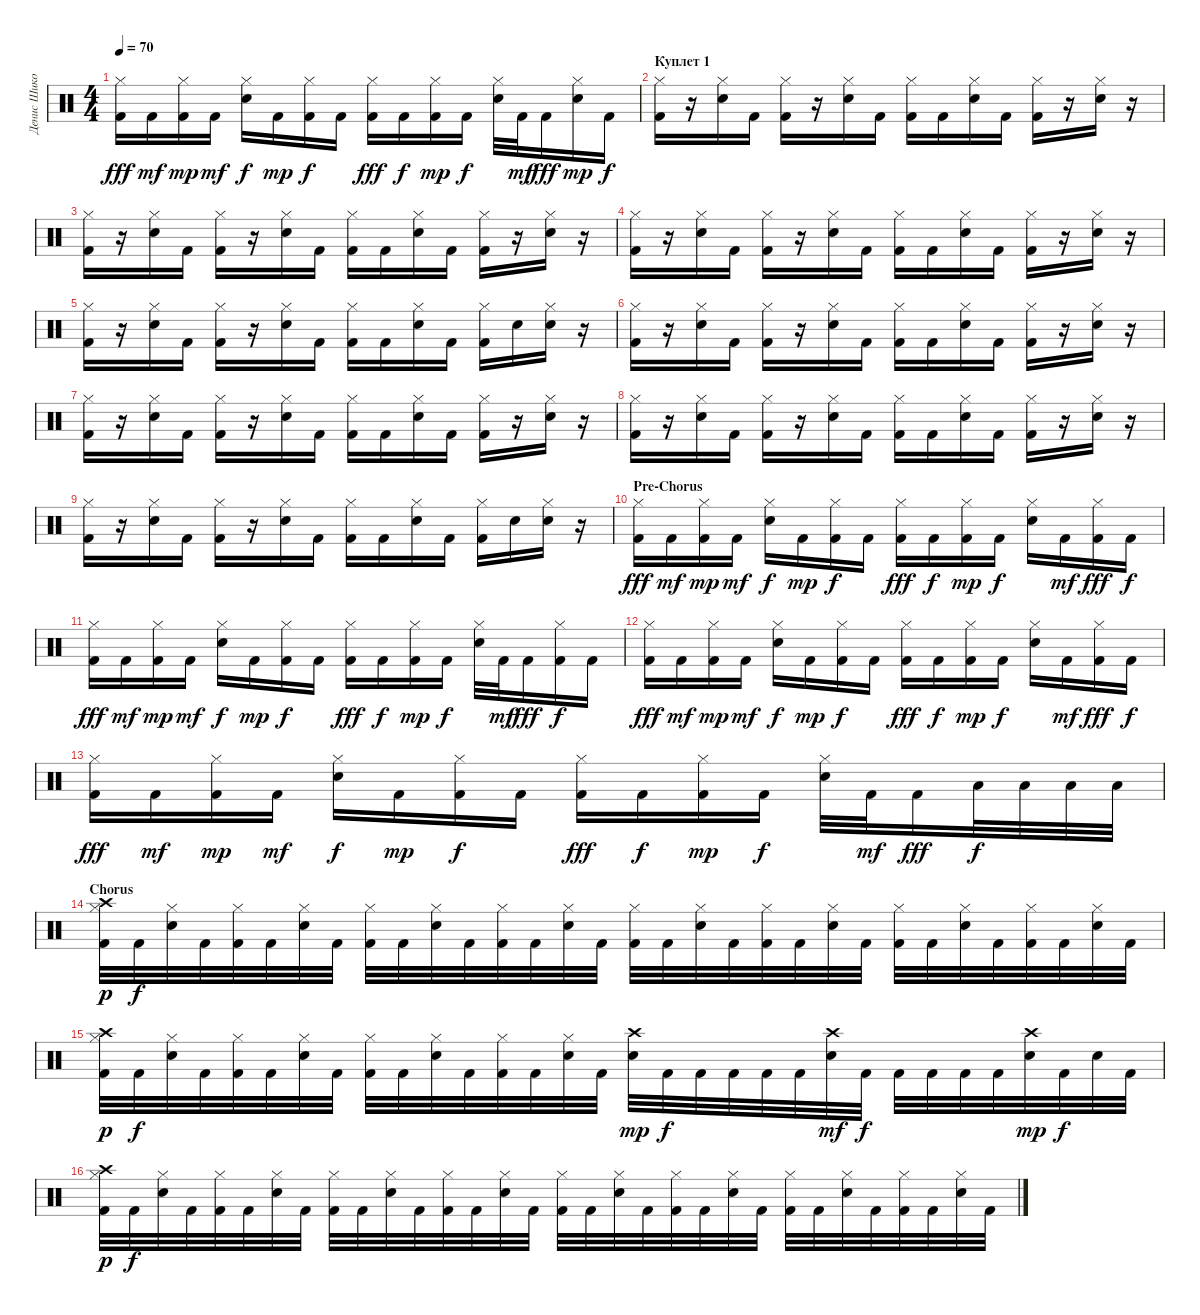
\track ("Денис Шиков" "Денис Шико") {instrument percussion}
\staff {score}
\articulation defaults
\ts (4 4)
\tempo 70
\clef neutral
\ks c
("Hi-Hat (closed)" "Kick (hit) 2").16{dy fff} "Kick (hit) 2".16{dy mf} ("Hi-Hat (closed)" "Kick (hit) 2").16{dy mp} "Kick (hit) 2".16{dy mf} ("Hi-Hat (closed)" "Electric Snare (hit)").16{dy f} "Kick (hit) 2".16{dy mp} ("Hi-Hat (closed)" "Kick (hit) 2").16{dy f} "Kick (hit) 2".16 ("Hi-Hat (closed)" "Kick (hit) 2").16{dy fff} "Kick (hit) 2".16{dy f} ("Hi-Hat (closed)" "Kick (hit) 2").16{dy mp} "Kick (hit) 2".16{dy f} ("Hi-Hat (closed)" "Electric Snare (hit)").32 "Kick (hit) 2".32{dy mf} "Kick (hit) 2".16{dy fff} ("Hi-Hat (closed)" "Electric Snare (hit)").16{dy mp} "Kick (hit) 2".16{dy f} |
\section ("" "Куплет 1")
("Hi-Hat (closed)" "Kick (hit) 2").16 r.16 ("Hi-Hat (closed)" "Electric Snare (hit)").16 "Kick (hit) 2".16 ("Hi-Hat (closed)" "Kick (hit) 2").16 r.16 ("Hi-Hat (closed)" "Electric Snare (hit)").16 "Kick (hit) 2".16 ("Hi-Hat (closed)" "Kick (hit) 2").16 "Kick (hit) 2".16 ("Hi-Hat (closed)" "Electric Snare (hit)").16 "Kick (hit) 2".16 ("Hi-Hat (closed)" "Kick (hit) 2").16 r.16 ("Hi-Hat (closed)" "Electric Snare (hit)").16 r.16 |
("Hi-Hat (closed)" "Kick (hit) 2").16 r.16 ("Hi-Hat (closed)" "Electric Snare (hit)").16 "Kick (hit) 2".16 ("Hi-Hat (closed)" "Kick (hit) 2").16 r.16 ("Hi-Hat (closed)" "Electric Snare (hit)").16 "Kick (hit) 2".16 ("Hi-Hat (closed)" "Kick (hit) 2").16 "Kick (hit) 2".16 ("Hi-Hat (closed)" "Electric Snare (hit)").16 "Kick (hit) 2".16 ("Hi-Hat (closed)" "Kick (hit) 2").16 r.16 ("Hi-Hat (closed)" "Electric Snare (hit)").16 r.16 |
("Hi-Hat (closed)" "Kick (hit) 2").16 r.16 ("Hi-Hat (closed)" "Electric Snare (hit)").16 "Kick (hit) 2".16 ("Hi-Hat (closed)" "Kick (hit) 2").16 r.16 ("Hi-Hat (closed)" "Electric Snare (hit)").16 "Kick (hit) 2".16 ("Hi-Hat (closed)" "Kick (hit) 2").16 "Kick (hit) 2".16 ("Hi-Hat (closed)" "Electric Snare (hit)").16 "Kick (hit) 2".16 ("Hi-Hat (closed)" "Kick (hit) 2").16 r.16 ("Hi-Hat (closed)" "Electric Snare (hit)").16 r.16 |
("Hi-Hat (closed)" "Kick (hit) 2").16 r.16 ("Hi-Hat (closed)" "Electric Snare (hit)").16 "Kick (hit) 2".16 ("Hi-Hat (closed)" "Kick (hit) 2").16 r.16 ("Hi-Hat (closed)" "Electric Snare (hit)").16 "Kick (hit) 2".16 ("Hi-Hat (closed)" "Kick (hit) 2").16 "Kick (hit) 2".16 ("Hi-Hat (closed)" "Electric Snare (hit)").16 "Kick (hit) 2".16 ("Hi-Hat (closed)" "Kick (hit) 2").16 "Electric Snare (hit)".16 ("Hi-Hat (closed)" "Electric Snare (hit)").16 r.16 |
("Hi-Hat (closed)" "Kick (hit) 2").16 r.16 ("Hi-Hat (closed)" "Electric Snare (hit)").16 "Kick (hit) 2".16 ("Hi-Hat (closed)" "Kick (hit) 2").16 r.16 ("Hi-Hat (closed)" "Electric Snare (hit)").16 "Kick (hit) 2".16 ("Hi-Hat (closed)" "Kick (hit) 2").16 "Kick (hit) 2".16 ("Hi-Hat (closed)" "Electric Snare (hit)").16 "Kick (hit) 2".16 ("Hi-Hat (closed)" "Kick (hit) 2").16 r.16 ("Hi-Hat (closed)" "Electric Snare (hit)").16 r.16 |
("Hi-Hat (closed)" "Kick (hit) 2").16 r.16 ("Hi-Hat (closed)" "Electric Snare (hit)").16 "Kick (hit) 2".16 ("Hi-Hat (closed)" "Kick (hit) 2").16 r.16 ("Hi-Hat (closed)" "Electric Snare (hit)").16 "Kick (hit) 2".16 ("Hi-Hat (closed)" "Kick (hit) 2").16 "Kick (hit) 2".16 ("Hi-Hat (closed)" "Electric Snare (hit)").16 "Kick (hit) 2".16 ("Hi-Hat (closed)" "Kick (hit) 2").16 r.16 ("Hi-Hat (closed)" "Electric Snare (hit)").16 r.16 |
("Hi-Hat (closed)" "Kick (hit) 2").16 r.16 ("Hi-Hat (closed)" "Electric Snare (hit)").16 "Kick (hit) 2".16 ("Hi-Hat (closed)" "Kick (hit) 2").16 r.16 ("Hi-Hat (closed)" "Electric Snare (hit)").16 "Kick (hit) 2".16 ("Hi-Hat (closed)" "Kick (hit) 2").16 "Kick (hit) 2".16 ("Hi-Hat (closed)" "Electric Snare (hit)").16 "Kick (hit) 2".16 ("Hi-Hat (closed)" "Kick (hit) 2").16 r.16 ("Hi-Hat (closed)" "Electric Snare (hit)").16 r.16 |
("Hi-Hat (closed)" "Kick (hit) 2").16 r.16 ("Hi-Hat (closed)" "Electric Snare (hit)").16 "Kick (hit) 2".16 ("Hi-Hat (closed)" "Kick (hit) 2").16 r.16 ("Hi-Hat (closed)" "Electric Snare (hit)").16 "Kick (hit) 2".16 ("Hi-Hat (closed)" "Kick (hit) 2").16 "Kick (hit) 2".16 ("Hi-Hat (closed)" "Electric Snare (hit)").16 "Kick (hit) 2".16 ("Hi-Hat (closed)" "Kick (hit) 2").16 "Electric Snare (hit)".16 ("Hi-Hat (closed)" "Electric Snare (hit)").16 r.16 |
\section ("" "Pre-Chorus")
("Hi-Hat (closed)" "Kick (hit) 2").16{dy fff} "Kick (hit) 2".16{dy mf} ("Hi-Hat (closed)" "Kick (hit) 2").16{dy mp} "Kick (hit) 2".16{dy mf} ("Hi-Hat (closed)" "Electric Snare (hit)").16{dy f} "Kick (hit) 2".16{dy mp} ("Hi-Hat (closed)" "Kick (hit) 2").16{dy f} "Kick (hit) 2".16 ("Hi-Hat (closed)" "Kick (hit) 2").16{dy fff} "Kick (hit) 2".16{dy f} ("Hi-Hat (closed)" "Kick (hit) 2").16{dy mp} "Kick (hit) 2".16{dy f} ("Hi-Hat (closed)" "Electric Snare (hit)").16 "Kick (hit) 2".16{dy mf} ("Hi-Hat (closed)" "Kick (hit) 2").16{dy fff} "Kick (hit) 2".16{dy f} |
("Hi-Hat (closed)" "Kick (hit) 2").16{dy fff} "Kick (hit) 2".16{dy mf} ("Hi-Hat (closed)" "Kick (hit) 2").16{dy mp} "Kick (hit) 2".16{dy mf} ("Hi-Hat (closed)" "Electric Snare (hit)").16{dy f} "Kick (hit) 2".16{dy mp} ("Hi-Hat (closed)" "Kick (hit) 2").16{dy f} "Kick (hit) 2".16 ("Hi-Hat (closed)" "Kick (hit) 2").16{dy fff} "Kick (hit) 2".16{dy f} ("Hi-Hat (closed)" "Kick (hit) 2").16{dy mp} "Kick (hit) 2".16{dy f} ("Hi-Hat (closed)" "Electric Snare (hit)").32 "Kick (hit) 2".32{dy mf} "Kick (hit) 2".16{dy fff} ("Hi-Hat (closed)" "Kick (hit) 2").16{dy f} "Kick (hit) 2".16 |
("Hi-Hat (closed)" "Kick (hit) 2").16{dy fff} "Kick (hit) 2".16{dy mf} ("Hi-Hat (closed)" "Kick (hit) 2").16{dy mp} "Kick (hit) 2".16{dy mf} ("Hi-Hat (closed)" "Electric Snare (hit)").16{dy f} "Kick (hit) 2".16{dy mp} ("Hi-Hat (closed)" "Kick (hit) 2").16{dy f} "Kick (hit) 2".16 ("Hi-Hat (closed)" "Kick (hit) 2").16{dy fff} "Kick (hit) 2".16{dy f} ("Hi-Hat (closed)" "Kick (hit) 2").16{dy mp} "Kick (hit) 2".16{dy f} ("Hi-Hat (closed)" "Electric Snare (hit)").16 "Kick (hit) 2".16{dy mf} ("Hi-Hat (closed)" "Kick (hit) 2").16{dy fff} "Kick (hit) 2".16{dy f} |
("Hi-Hat (closed)" "Kick (hit) 2").16{dy fff} "Kick (hit) 2".16{dy mf} ("Hi-Hat (closed)" "Kick (hit) 2").16{dy mp} "Kick (hit) 2".16{dy mf} ("Hi-Hat (closed)" "Electric Snare (hit)").16{dy f} "Kick (hit) 2".16{dy mp} ("Hi-Hat (closed)" "Kick (hit) 2").16{dy f} "Kick (hit) 2".16 ("Hi-Hat (closed)" "Kick (hit) 2").16{dy fff} "Kick (hit) 2".16{dy f} ("Hi-Hat (closed)" "Kick (hit) 2").16{dy mp} "Kick (hit) 2".16{dy f} ("Hi-Hat (closed)" "Electric Snare (hit)").32 "Kick (hit) 2".32{dy mf} "Kick (hit) 2".16{dy fff} "Low Floor Tom (hit)".32{dy f} "Low Floor Tom (hit)".32 "Low Tom (hit)".32 "Low Floor Tom (hit)".32 |
\section ("" "Chorus")
("Crash high (hit)" "Hi-Hat (closed)" "Kick (hit) 2").32{dy p} "Kick (hit) 2".32{dy f} ("Hi-Hat (closed)" "Electric Snare (hit)").32 "Kick (hit) 2".32 ("Hi-Hat (closed)" "Kick (hit) 2").32 "Kick (hit) 2".32 ("Hi-Hat (closed)" "Electric Snare (hit)").32 "Kick (hit) 2".32 ("Hi-Hat (closed)" "Kick (hit) 2").32 "Kick (hit) 2".32 ("Hi-Hat (closed)" "Electric Snare (hit)").32 "Kick (hit) 2".32 ("Hi-Hat (closed)" "Kick (hit) 2").32 "Kick (hit) 2".32 ("Hi-Hat (closed)" "Electric Snare (hit)").32 "Kick (hit) 2".32 ("Hi-Hat (closed)" "Kick (hit) 2").32 "Kick (hit) 2".32 ("Hi-Hat (closed)" "Electric Snare (hit)").32 "Kick (hit) 2".32 ("Hi-Hat (closed)" "Kick (hit) 2").32 "Kick (hit) 2".32 ("Hi-Hat (closed)" "Electric Snare (hit)").32 "Kick (hit) 2".32 ("Hi-Hat (closed)" "Kick (hit) 2").32 "Kick (hit) 2".32 ("Hi-Hat (closed)" "Electric Snare (hit)").32 "Kick (hit) 2".32 ("Hi-Hat (closed)" "Kick (hit) 2").32 "Kick (hit) 2".32 ("Hi-Hat (closed)" "Electric Snare (hit)").32 "Kick (hit) 2".32 |
("Crash high (hit)" "Hi-Hat (closed)" "Kick (hit) 2").32{dy p} "Kick (hit) 2".32{dy f} ("Hi-Hat (closed)" "Electric Snare (hit)").32 "Kick (hit) 2".32 ("Hi-Hat (closed)" "Kick (hit) 2").32 "Kick (hit) 2".32 ("Hi-Hat (closed)" "Electric Snare (hit)").32 "Kick (hit) 2".32 ("Hi-Hat (closed)" "Kick (hit) 2").32 "Kick (hit) 2".32 ("Hi-Hat (closed)" "Electric Snare (hit)").32 "Kick (hit) 2".32 ("Hi-Hat (closed)" "Kick (hit) 2").32 "Kick (hit) 2".32 ("Hi-Hat (closed)" "Electric Snare (hit)").32 "Kick (hit) 2".32 ("Crash high (hit)" "Electric Snare (hit)").32{dy mp} "Kick (hit) 2".32{dy f} "Kick (hit) 2".32 "Kick (hit) 2".32 "Kick (hit) 2".32 "Kick (hit) 2".32 ("Crash high (hit)" "Electric Snare (hit)").32{dy mf} "Kick (hit) 2".32{dy f} "Kick (hit) 2".32 "Kick (hit) 2".32 "Kick (hit) 2".32 "Kick (hit) 2".32 ("Crash high (hit)" "Electric Snare (hit)").32{dy mp} "Kick (hit) 2".32{dy f} "Electric Snare (hit)".32 "Kick (hit) 2".32 |
("Crash high (hit)" "Hi-Hat (closed)" "Kick (hit) 2").32{dy p} "Kick (hit) 2".32{dy f} ("Hi-Hat (closed)" "Electric Snare (hit)").32 "Kick (hit) 2".32 ("Hi-Hat (closed)" "Kick (hit) 2").32 "Kick (hit) 2".32 ("Hi-Hat (closed)" "Electric Snare (hit)").32 "Kick (hit) 2".32 ("Hi-Hat (closed)" "Kick (hit) 2").32 "Kick (hit) 2".32 ("Hi-Hat (closed)" "Electric Snare (hit)").32 "Kick (hit) 2".32 ("Hi-Hat (closed)" "Kick (hit) 2").32 "Kick (hit) 2".32 ("Hi-Hat (closed)" "Electric Snare (hit)").32 "Kick (hit) 2".32 ("Hi-Hat (closed)" "Kick (hit) 2").32 "Kick (hit) 2".32 ("Hi-Hat (closed)" "Electric Snare (hit)").32 "Kick (hit) 2".32 ("Hi-Hat (closed)" "Kick (hit) 2").32 "Kick (hit) 2".32 ("Hi-Hat (closed)" "Electric Snare (hit)").32 "Kick (hit) 2".32 ("Hi-Hat (closed)" "Kick (hit) 2").32 "Kick (hit) 2".32 ("Hi-Hat (closed)" "Electric Snare (hit)").32 "Kick (hit) 2".32 ("Hi-Hat (closed)" "Kick (hit) 2").32 "Kick (hit) 2".32 ("Hi-Hat (closed)" "Electric Snare (hit)").32 "Kick (hit) 2".32
